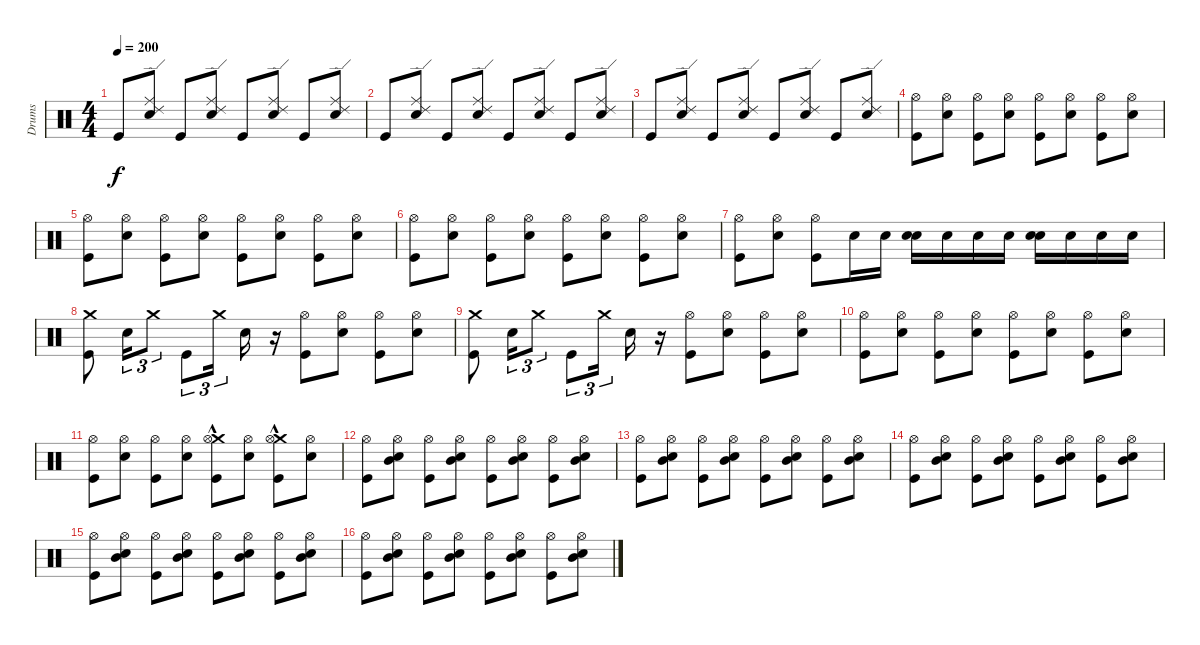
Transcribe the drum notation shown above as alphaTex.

\track ("Drums" "Drums") {instrument percussion}
\staff {score}
\articulation defaults
\ts (4 4)
\tempo 200
\clef neutral
\ks c "Kick (hit)".8{dy f}
("Electric Snare (hit)" "Ride (middle)" "Ride (edge) 2").8 "Kick (hit)".8 ("Electric Snare (hit)" "Ride (edge) 2" "Ride (middle)").8 "Kick (hit)".8 ("Electric Snare (hit)" "Ride (edge) 2" "Ride (middle)").8 "Kick (hit)".8 ("Electric Snare (hit)" "Ride (edge) 2" "Ride (middle)").8 |
"Kick (hit)".8 ("Electric Snare (hit)" "Ride (middle)" "Ride (edge) 2").8 "Kick (hit)".8 ("Electric Snare (hit)" "Ride (edge) 2" "Ride (middle)").8 "Kick (hit)".8 ("Electric Snare (hit)" "Ride (edge) 2" "Ride (middle)").8 "Kick (hit)".8 ("Electric Snare (hit)" "Ride (edge) 2" "Ride (middle)").8 |
"Kick (hit)".8 ("Electric Snare (hit)" "Ride (middle)" "Ride (edge) 2").8 "Kick (hit)".8 ("Electric Snare (hit)" "Ride (edge) 2" "Ride (middle)").8 "Kick (hit)".8 ("Electric Snare (hit)" "Ride (edge) 2" "Ride (middle)").8 "Kick (hit)".8 ("Electric Snare (hit)" "Ride (edge) 2" "Ride (middle)").8 |
("Hi-Hat (open)" "Kick (hit)").8 ("Hi-Hat (open)" "Electric Snare (hit)").8 ("Hi-Hat (open)" "Kick (hit)").8 ("Hi-Hat (open)" "Electric Snare (hit)").8 ("Hi-Hat (open)" "Kick (hit)").8 ("Hi-Hat (open)" "Electric Snare (hit)").8 ("Hi-Hat (open)" "Kick (hit)").8 ("Hi-Hat (open)" "Electric Snare (hit)").8 |
("Hi-Hat (open)" "Kick (hit)").8 ("Hi-Hat (open)" "Electric Snare (hit)").8 ("Hi-Hat (open)" "Kick (hit)").8 ("Hi-Hat (open)" "Electric Snare (hit)").8 ("Hi-Hat (open)" "Kick (hit)").8 ("Hi-Hat (open)" "Electric Snare (hit)").8 ("Hi-Hat (open)" "Kick (hit)").8 ("Hi-Hat (open)" "Electric Snare (hit)").8 |
("Hi-Hat (open)" "Kick (hit)").8 ("Hi-Hat (open)" "Electric Snare (hit)").8 ("Hi-Hat (open)" "Kick (hit)").8 ("Hi-Hat (open)" "Electric Snare (hit)").8 ("Hi-Hat (open)" "Kick (hit)").8 ("Hi-Hat (open)" "Electric Snare (hit)").8 ("Hi-Hat (open)" "Kick (hit)").8 ("Hi-Hat (open)" "Electric Snare (hit)").8 |
("Hi-Hat (open)" "Kick (hit)").8 ("Hi-Hat (open)" "Electric Snare (hit)").8 ("Hi-Hat (open)" "Kick (hit)").8 "Electric Snare (hit)".16 "Electric Snare (hit)".16 ("Electric Snare (hit)" "Electric Snare (hit)").16 "Electric Snare (hit)".16 "Electric Snare (hit)".16 "Electric Snare (hit)".16 ("Electric Snare (hit)" "Electric Snare (hit)").16 "Electric Snare (hit)".16 "Electric Snare (hit)".16 "Electric Snare (hit)".16 |
("Crash medium (hit)" "Kick (hit)").8 "Electric Snare (hit)".16{tu (3 2)} "Crash medium (hit)".8{tu (3 2)} "Kick (hit)".8{tu (3 2)} "Crash medium (hit)".16{tu (3 2)} "Electric Snare (hit)".16 r.16 ("Hi-Hat (open)" "Kick (hit)").8 ("Hi-Hat (open)" "Electric Snare (hit)").8 ("Hi-Hat (open)" "Kick (hit)").8 ("Hi-Hat (open)" "Electric Snare (hit)").8 |
("Kick (hit)" "Crash medium (hit)").8 "Electric Snare (hit)".16{tu (3 2)} "Crash medium (hit)".8{tu (3 2)} "Kick (hit)".8{tu (3 2)} "Crash medium (hit)".16{tu (3 2)} "Electric Snare (hit)".16 r.16 ("Hi-Hat (open)" "Kick (hit)").8 ("Electric Snare (hit)" "Hi-Hat (open)").8 ("Hi-Hat (open)" "Kick (hit)").8 ("Hi-Hat (open)" "Electric Snare (hit)").8 |
("Kick (hit)" "Hi-Hat (open)").8 ("Electric Snare (hit)" "Hi-Hat (open)").8 ("Hi-Hat (open)" "Kick (hit)").8 ("Hi-Hat (open)" "Electric Snare (hit)").8 ("Hi-Hat (open)" "Kick (hit)").8 ("Hi-Hat (open)" "Electric Snare (hit)").8 ("Kick (hit)" "Hi-Hat (open)").8 ("Hi-Hat (open)" "Electric Snare (hit)").8 |
("Kick (hit)" "Hi-Hat (open)").8 ("Electric Snare (hit)" "Hi-Hat (open)").8 ("Hi-Hat (open)" "Kick (hit)").8 ("Hi-Hat (open)" "Electric Snare (hit)").8 ("Crash medium (hit)"{hac} "Hi-Hat (open)" "Kick (hit)").8 ("Hi-Hat (open)" "Electric Snare (hit)").8 ("Crash medium (hit)"{hac} "Kick (hit)" "Hi-Hat (open)").8 ("Hi-Hat (open)" "Electric Snare (hit)").8 |
("Kick (hit)" "Hi-Hat (open)").8 ("Mid Tom (hit)" "Electric Snare (hit)" "Hi-Hat (open)").8 ("Hi-Hat (open)" "Kick (hit)").8 ("Mid Tom (hit)" "Hi-Hat (open)" "Electric Snare (hit)").8 ("Hi-Hat (open)" "Kick (hit)").8 ("Mid Tom (hit)" "Hi-Hat (open)" "Electric Snare (hit)").8 ("Kick (hit)" "Hi-Hat (open)").8 ("Mid Tom (hit)" "Hi-Hat (open)" "Electric Snare (hit)").8 |
("Kick (hit)" "Hi-Hat (open)").8 ("Electric Snare (hit)" "Hi-Hat (open)" "Mid Tom (hit)").8 ("Kick (hit)" "Hi-Hat (open)").8 ("Hi-Hat (open)" "Mid Tom (hit)" "Electric Snare (hit)").8 ("Hi-Hat (open)" "Kick (hit)").8 ("Electric Snare (hit)" "Mid Tom (hit)" "Hi-Hat (open)").8 ("Kick (hit)" "Hi-Hat (open)").8 ("Hi-Hat (open)" "Electric Snare (hit)" "Mid Tom (hit)").8 |
("Kick (hit)" "Hi-Hat (open)").8 ("Electric Snare (hit)" "Hi-Hat (open)" "Mid Tom (hit)").8 ("Hi-Hat (open)" "Kick (hit)").8 ("Electric Snare (hit)" "Hi-Hat (open)" "Mid Tom (hit)").8 ("Kick (hit)" "Hi-Hat (open)").8 ("Hi-Hat (open)" "Electric Snare (hit)" "Mid Tom (hit)").8 ("Hi-Hat (open)" "Kick (hit)").8 ("Electric Snare (hit)" "Hi-Hat (open)" "Mid Tom (hit)").8 |
("Hi-Hat (open)" "Kick (hit)").8 ("Hi-Hat (open)" "Electric Snare (hit)" "Mid Tom (hit)").8 ("Kick (hit)" "Hi-Hat (open)").8 ("Electric Snare (hit)" "Hi-Hat (open)" "Mid Tom (hit)").8 ("Kick (hit)" "Hi-Hat (open)").8 ("Hi-Hat (open)" "Electric Snare (hit)" "Mid Tom (hit)").8 ("Kick (hit)" "Hi-Hat (open)").8 ("Electric Snare (hit)" "Hi-Hat (open)" "Mid Tom (hit)").8 |
("Hi-Hat (open)" "Kick (hit)").8 ("Hi-Hat (open)" "Electric Snare (hit)" "Mid Tom (hit)").8 ("Kick (hit)" "Hi-Hat (open)").8 ("Hi-Hat (open)" "Electric Snare (hit)" "Mid Tom (hit)").8 ("Hi-Hat (open)" "Kick (hit)").8 ("Mid Tom (hit)" "Hi-Hat (open)" "Electric Snare (hit)").8 ("Hi-Hat (open)" "Kick (hit)").8 ("Mid Tom (hit)" "Hi-Hat (open)" "Electric Snare (hit)").8
